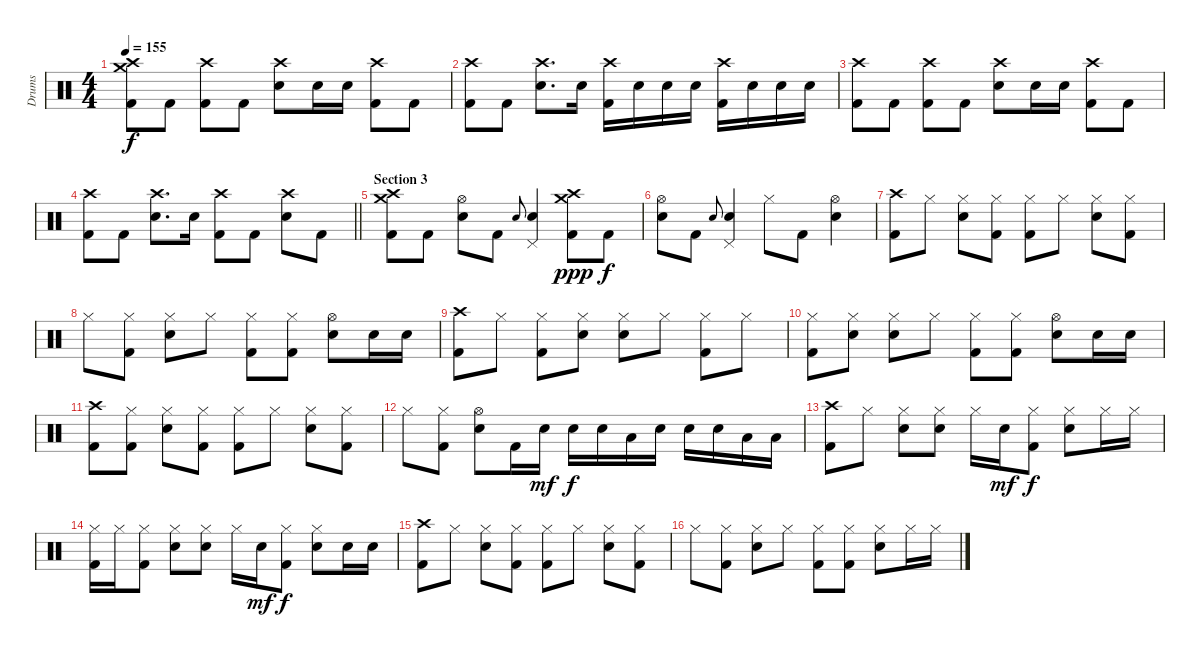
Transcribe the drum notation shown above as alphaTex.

\track ("Drums" "Drums") {instrument percussion}
\staff {score}
\articulation defaults
\ts (4 4)
\tempo 155
\clef neutral
\ks c
("Crash high (hit)" "Crash medium (hit)" "Kick (hit) 2").8{dy f} "Kick (hit) 2".8 ("Crash high (hit)" "Kick (hit) 2").8 "Kick (hit) 2".8 ("Crash high (hit)" "Electric Snare (hit)").8 "Electric Snare (hit)".16 "Electric Snare (hit)".16 ("Crash high (hit)" "Kick (hit) 2").8 "Kick (hit) 2".8 |
("Crash high (hit)" "Kick (hit) 2").8 "Kick (hit) 2".8 ("Crash high (hit)" "Electric Snare (hit)").8{d} "Electric Snare (hit)".16 ("Crash high (hit)" "Kick (hit) 2").16 "Electric Snare (hit)".16 "Electric Snare (hit)".16 "Electric Snare (hit)".16 ("Crash high (hit)" "Kick (hit) 2").16 "Electric Snare (hit)".16 "Electric Snare (hit)".16 "Electric Snare (hit)".16 |
("Crash high (hit)" "Kick (hit) 2").8 "Kick (hit) 2".8 ("Crash high (hit)" "Kick (hit) 2").8 "Kick (hit) 2".8 ("Crash high (hit)" "Electric Snare (hit)").8 "Electric Snare (hit)".16 "Electric Snare (hit)".16 ("Crash high (hit)" "Kick (hit) 2").8 "Kick (hit) 2".8 |
\barLineRight lightlight
("Crash high (hit)" "Kick (hit) 2").8 "Kick (hit) 2".8 ("Crash high (hit)" "Electric Snare (hit)").8{d} "Electric Snare (hit)".16 ("Crash high (hit)" "Kick (hit) 2").8 "Kick (hit) 2".8 ("Crash high (hit)" "Electric Snare (hit)").8 "Kick (hit) 2".8 |
\section ("" "Section 3")
("Crash high (hit)" "Crash medium (hit)" "Kick (hit) 2").8 "Kick (hit) 2".8 ("Hi-Hat (open)" "Electric Snare (hit)").8 "Kick (hit) 2".8 "Electric Snare (hit)".8{gr onbeat} ("Pedal Hi-Hat (hit)" "Electric Snare (hit)").4 ("Crash high (hit)" "Crash medium (hit)" "Kick (hit) 2").8{dy ppp} "Kick (hit) 2".8{dy f} |
("Hi-Hat (open)" "Electric Snare (hit)").8 "Kick (hit) 2".8 "Electric Snare (hit)".8{gr onbeat} ("Pedal Hi-Hat (hit)" "Electric Snare (hit)").4 "Hi-Hat (closed)".8 "Kick (hit) 2".8 ("Hi-Hat (open)" "Electric Snare (hit)").4 |
("Crash high (hit)" "Kick (hit) 2").8 "Hi-Hat (closed)".8 ("Hi-Hat (closed)" "Electric Snare (hit)").8 ("Hi-Hat (closed)" "Kick (hit) 2").8 ("Hi-Hat (closed)" "Kick (hit) 2").8 "Hi-Hat (closed)".8 ("Hi-Hat (closed)" "Electric Snare (hit)").8 ("Hi-Hat (closed)" "Kick (hit) 2").8 |
"Hi-Hat (closed)".8 ("Hi-Hat (closed)" "Kick (hit) 2").8 ("Hi-Hat (closed)" "Electric Snare (hit)").8 "Hi-Hat (closed)".8 ("Hi-Hat (closed)" "Kick (hit) 2").8 ("Hi-Hat (closed)" "Kick (hit) 2").8 ("Hi-Hat (open)" "Electric Snare (hit)").8 "Electric Snare (hit)".16 "Electric Snare (hit)".16 |
("Crash high (hit)" "Kick (hit) 2").8 "Hi-Hat (closed)".8 ("Hi-Hat (closed)" "Kick (hit) 2").8 ("Hi-Hat (closed)" "Electric Snare (hit)").8 ("Hi-Hat (closed)" "Electric Snare (hit)").8 "Hi-Hat (closed)".8 ("Hi-Hat (closed)" "Kick (hit) 2").8 "Hi-Hat (closed)".8 |
("Hi-Hat (closed)" "Kick (hit) 2").8 ("Hi-Hat (closed)" "Electric Snare (hit)").8 ("Hi-Hat (closed)" "Electric Snare (hit)").8 "Hi-Hat (closed)".8 ("Hi-Hat (closed)" "Kick (hit) 2").8 ("Hi-Hat (closed)" "Kick (hit) 2").8 ("Hi-Hat (open)" "Electric Snare (hit)").8 "Electric Snare (hit)".16 "Electric Snare (hit)".16 |
("Crash high (hit)" "Kick (hit) 2").8 ("Hi-Hat (closed)" "Kick (hit) 2").8 ("Hi-Hat (closed)" "Electric Snare (hit)").8 ("Hi-Hat (closed)" "Kick (hit) 2").8 ("Hi-Hat (closed)" "Kick (hit) 2").8 "Hi-Hat (closed)".8 ("Hi-Hat (closed)" "Electric Snare (hit)").8 ("Hi-Hat (closed)" "Kick (hit) 2").8 |
"Hi-Hat (closed)".8 ("Hi-Hat (closed)" "Kick (hit) 2").8 ("Hi-Hat (open)" "Electric Snare (hit)").8 "Kick (hit) 2".16 "Electric Snare (hit)".16{dy mf} "Electric Snare (hit)".16{dy f} "Electric Snare (hit)".16 "Low Tom (hit)".16 "Electric Snare (hit)".16 "Electric Snare (hit)".16 "Electric Snare (hit)".16 "Low Tom (hit)".16 "Low Tom (hit)".16 |
("Crash high (hit)" "Kick (hit) 2").8 "Hi-Hat (closed)".8 ("Hi-Hat (closed)" "Electric Snare (hit)").8 ("Hi-Hat (closed)" "Electric Snare (hit)").8 "Hi-Hat (closed)".16 "Electric Snare (hit)".16{dy mf} ("Hi-Hat (closed)" "Kick (hit) 2").8{dy f} ("Hi-Hat (closed)" "Electric Snare (hit)").8 "Hi-Hat (closed)".16 "Hi-Hat (closed)".16 |
("Hi-Hat (closed)" "Kick (hit) 2").16 "Hi-Hat (closed)".16 ("Hi-Hat (closed)" "Kick (hit) 2").8 ("Hi-Hat (closed)" "Electric Snare (hit)").8 ("Hi-Hat (closed)" "Electric Snare (hit)").8 "Hi-Hat (closed)".16 "Electric Snare (hit)".16{dy mf} ("Hi-Hat (closed)" "Kick (hit) 2").8{dy f} ("Hi-Hat (closed)" "Electric Snare (hit)").8 "Electric Snare (hit)".16 "Electric Snare (hit)".16 |
("Crash high (hit)" "Kick (hit) 2").8 "Hi-Hat (closed)".8 ("Hi-Hat (closed)" "Electric Snare (hit)").8 ("Hi-Hat (closed)" "Kick (hit) 2").8 ("Hi-Hat (closed)" "Kick (hit) 2").8 "Hi-Hat (closed)".8 ("Hi-Hat (closed)" "Electric Snare (hit)").8 ("Hi-Hat (closed)" "Kick (hit) 2").8 |
"Hi-Hat (closed)".8 ("Hi-Hat (closed)" "Kick (hit) 2").8 ("Hi-Hat (closed)" "Electric Snare (hit)").8 "Hi-Hat (closed)".8 ("Hi-Hat (closed)" "Kick (hit) 2").8 ("Hi-Hat (closed)" "Kick (hit) 2").8 ("Hi-Hat (closed)" "Electric Snare (hit)").8 "Hi-Hat (closed)".16 "Hi-Hat (closed)".16
